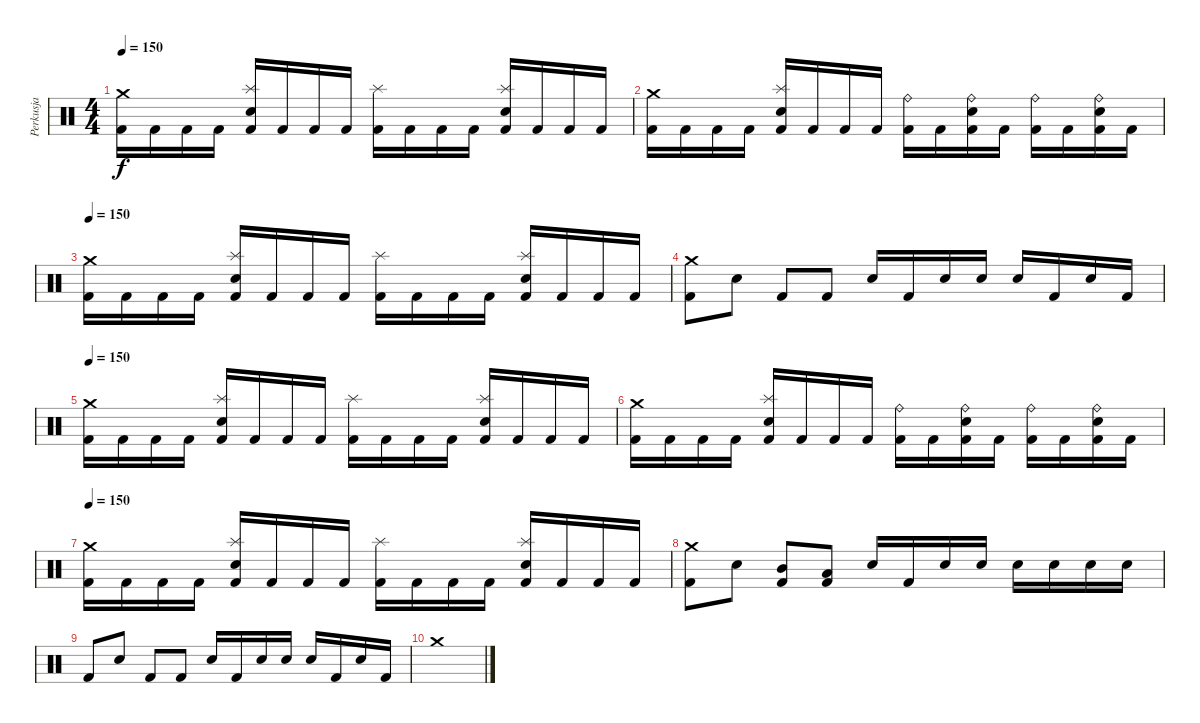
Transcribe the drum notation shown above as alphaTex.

\track ("Perkusja" "Perkusja") {instrument percussion}
\staff {score}
\articulation defaults
\ts (4 4)
\tempo 150
\clef neutral
\ks c
("Crash medium (hit)" "Kick (hit) 2").16{dy f} "Kick (hit) 2".16 "Kick (hit) 2".16 "Kick (hit) 2".16 ("Splash (hit)" "Electric Snare (hit)" "Kick (hit) 2").16 "Kick (hit) 2".16 "Kick (hit) 2".16 "Kick (hit) 2".16 ("Splash (hit)" "Kick (hit) 2").16 "Kick (hit) 2".16 "Kick (hit) 2".16 "Kick (hit) 2".16 ("Splash (hit)" "Electric Snare (hit)" "Kick (hit) 2").16 "Kick (hit) 2".16 "Kick (hit) 2".16 "Kick (hit) 2".16 |
("Crash medium (hit)" "Kick (hit) 2").16 "Kick (hit) 2".16 "Kick (hit) 2".16 "Kick (hit) 2".16 ("Splash (hit)" "Electric Snare (hit)" "Kick (hit) 2").16 "Kick (hit) 2".16 "Kick (hit) 2".16 "Kick (hit) 2".16 ("Ride (bell)" "Kick (hit) 2").16 "Kick (hit) 2".16 ("Ride (bell)" "Electric Snare (hit)" "Kick (hit) 2").16 "Kick (hit) 2".16 ("Ride (bell)" "Kick (hit) 2").16 "Kick (hit) 2".16 ("Ride (bell)" "Electric Snare (hit)" "Kick (hit) 2").16 "Kick (hit) 2".16 |
\tempo 150
("Crash medium (hit)" "Kick (hit) 2").16 "Kick (hit) 2".16 "Kick (hit) 2".16 "Kick (hit) 2".16 ("Splash (hit)" "Electric Snare (hit)" "Kick (hit) 2").16 "Kick (hit) 2".16 "Kick (hit) 2".16 "Kick (hit) 2".16 ("Splash (hit)" "Kick (hit) 2").16 "Kick (hit) 2".16 "Kick (hit) 2".16 "Kick (hit) 2".16 ("Splash (hit)" "Electric Snare (hit)" "Kick (hit) 2").16 "Kick (hit) 2".16 "Kick (hit) 2".16 "Kick (hit) 2".16 |
("Crash medium (hit)" "Kick (hit) 2").8 "Electric Snare (hit)".8 "Kick (hit) 2".8 "Kick (hit) 2".8 "Electric Snare (hit)".16 "Kick (hit) 2".16 "Electric Snare (hit)".16 "Electric Snare (hit)".16 "Electric Snare (hit)".16 "Kick (hit) 2".16 "Electric Snare (hit)".16 "Kick (hit) 2".16 |
\tempo 150
("Crash medium (hit)" "Kick (hit) 2").16 "Kick (hit) 2".16 "Kick (hit) 2".16 "Kick (hit) 2".16 ("Splash (hit)" "Electric Snare (hit)" "Kick (hit) 2").16 "Kick (hit) 2".16 "Kick (hit) 2".16 "Kick (hit) 2".16 ("Splash (hit)" "Kick (hit) 2").16 "Kick (hit) 2".16 "Kick (hit) 2".16 "Kick (hit) 2".16 ("Splash (hit)" "Electric Snare (hit)" "Kick (hit) 2").16 "Kick (hit) 2".16 "Kick (hit) 2".16 "Kick (hit) 2".16 |
("Crash medium (hit)" "Kick (hit) 2").16 "Kick (hit) 2".16 "Kick (hit) 2".16 "Kick (hit) 2".16 ("Splash (hit)" "Electric Snare (hit)" "Kick (hit) 2").16 "Kick (hit) 2".16 "Kick (hit) 2".16 "Kick (hit) 2".16 ("Ride (bell)" "Kick (hit) 2").16 "Kick (hit) 2".16 ("Ride (bell)" "Electric Snare (hit)" "Kick (hit) 2").16 "Kick (hit) 2".16 ("Ride (bell)" "Kick (hit) 2").16 "Kick (hit) 2".16 ("Ride (bell)" "Electric Snare (hit)" "Kick (hit) 2").16 "Kick (hit) 2".16 |
\tempo 150
("Crash medium (hit)" "Kick (hit) 2").16 "Kick (hit) 2".16 "Kick (hit) 2".16 "Kick (hit) 2".16 ("Splash (hit)" "Electric Snare (hit)" "Kick (hit) 2").16 "Kick (hit) 2".16 "Kick (hit) 2".16 "Kick (hit) 2".16 ("Splash (hit)" "Kick (hit) 2").16 "Kick (hit) 2".16 "Kick (hit) 2".16 "Kick (hit) 2".16 ("Splash (hit)" "Electric Snare (hit)" "Kick (hit) 2").16 "Kick (hit) 2".16 "Kick (hit) 2".16 "Kick (hit) 2".16 |
("Crash medium (hit)" "Kick (hit) 2").8 "Electric Snare (hit)".8 ("Mid Tom (hit)" "Kick (hit) 2").8 ("Low Tom (hit)" "Kick (hit) 2").8 "Electric Snare (hit)".16 "Kick (hit) 2".16 "Electric Snare (hit)".16 "Electric Snare (hit)".16 "Electric Snare (hit)".16 "Electric Snare (hit)".16 "Electric Snare (hit)".16 "Electric Snare (hit)".16 |
"Kick (hit) 2".8 "Electric Snare (hit)".8 "Kick (hit) 2".8 "Kick (hit) 2".8 "Electric Snare (hit)".16 "Kick (hit) 2".16 "Electric Snare (hit)".16 "Electric Snare (hit)".16 "Electric Snare (hit)".16 "Kick (hit) 2".16 "Electric Snare (hit)".16 "Kick (hit) 2".16 |
"Crash medium (hit)".1
